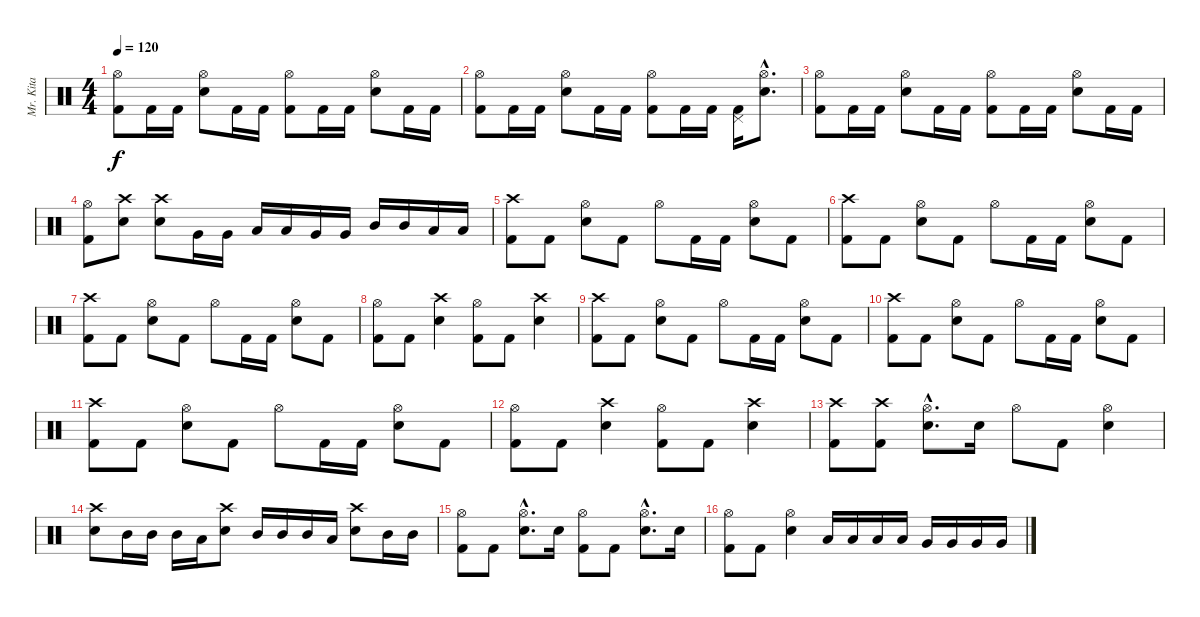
\track ("Mr. Kita" "Mr. Kita") {instrument percussion}
\staff {score}
\articulation defaults
\ts (4 4)
\tempo 120
\clef neutral
\ks c
("Hi-Hat (open)" "Kick (hit) 2").8{dy f} "Kick (hit) 2".16 "Kick (hit) 2".16 ("Hi-Hat (open)" "Snare (hit) 2").8 "Kick (hit) 2".16 "Kick (hit) 2".16 ("Hi-Hat (open)" "Kick (hit) 2").8 "Kick (hit) 2".16 "Kick (hit) 2".16 ("Hi-Hat (open)" "Snare (hit) 2").8 "Kick (hit) 2".16 "Kick (hit) 2".16 |
("Hi-Hat (open)" "Kick (hit) 2").8 "Kick (hit) 2".16 "Kick (hit) 2".16 ("Hi-Hat (open)" "Snare (hit) 2").8 "Kick (hit) 2".16 "Kick (hit) 2".16 ("Hi-Hat (open)" "Kick (hit) 2").8 "Kick (hit) 2".16 "Kick (hit) 2".16 ("Pedal Hi-Hat (hit)" "Kick (hit) 2").16 ("Hi-Hat (open)"{hac} "Snare (hit) 2"{hac}).8{d} |
("Hi-Hat (open)" "Kick (hit) 2").8 "Kick (hit) 2".16 "Kick (hit) 2".16 ("Hi-Hat (open)" "Snare (hit) 2").8 "Kick (hit) 2".16 "Kick (hit) 2".16 ("Hi-Hat (open)" "Kick (hit) 2").8 "Kick (hit) 2".16 "Kick (hit) 2".16 ("Hi-Hat (open)" "Snare (hit) 2").8 "Kick (hit) 2".16 "Kick (hit) 2".16 |
("Hi-Hat (open)" "Kick (hit) 2").8 ("Crash high (hit)" "Snare (hit) 2").8 ("Crash high (hit)" "Snare (hit) 2").8 "Very Low Tom (hit)".16 "Very Low Tom (hit)".16 "Low Tom (hit)".16 "Low Tom (hit)".16 "Very Low Tom (hit)".16 "Very Low Tom (hit)".16 "Mid Tom (hit)".16 "Mid Tom (hit)".16 "Low Tom (hit)".16 "Low Tom (hit)".16 |
("Crash high (hit)" "Kick (hit) 2").8 "Kick (hit) 2".8 ("Hi-Hat (open)" "Snare (hit) 2").8 "Kick (hit) 2".8 "Hi-Hat (open)".8 "Kick (hit) 2".16 "Kick (hit) 2".16 ("Hi-Hat (open)" "Snare (hit) 2").8 "Kick (hit) 2".8 |
("Crash high (hit)" "Kick (hit) 2").8 "Kick (hit) 2".8 ("Hi-Hat (open)" "Snare (hit) 2").8 "Kick (hit) 2".8 "Hi-Hat (open)".8 "Kick (hit) 2".16 "Kick (hit) 2".16 ("Hi-Hat (open)" "Snare (hit) 2").8 "Kick (hit) 2".8 |
("Crash high (hit)" "Kick (hit) 2").8 "Kick (hit) 2".8 ("Hi-Hat (open)" "Snare (hit) 2").8 "Kick (hit) 2".8 "Hi-Hat (open)".8 "Kick (hit) 2".16 "Kick (hit) 2".16 ("Hi-Hat (open)" "Snare (hit) 2").8 "Kick (hit) 2".8 |
("Hi-Hat (open)" "Kick (hit) 2").8 "Kick (hit) 2".8 ("Crash high (hit)" "Snare (hit) 2").4 ("Hi-Hat (open)" "Kick (hit) 2").8 "Kick (hit) 2".8 ("Crash high (hit)" "Snare (hit) 2").4 |
("Crash high (hit)" "Kick (hit) 2").8 "Kick (hit) 2".8 ("Hi-Hat (open)" "Snare (hit) 2").8 "Kick (hit) 2".8 "Hi-Hat (open)".8 "Kick (hit) 2".16 "Kick (hit) 2".16 ("Hi-Hat (open)" "Snare (hit) 2").8 "Kick (hit) 2".8 |
("Crash high (hit)" "Kick (hit) 2").8 "Kick (hit) 2".8 ("Hi-Hat (open)" "Snare (hit) 2").8 "Kick (hit) 2".8 "Hi-Hat (open)".8 "Kick (hit) 2".16 "Kick (hit) 2".16 ("Hi-Hat (open)" "Snare (hit) 2").8 "Kick (hit) 2".8 |
("Crash high (hit)" "Kick (hit) 2").8 "Kick (hit) 2".8 ("Hi-Hat (open)" "Snare (hit) 2").8 "Kick (hit) 2".8 "Hi-Hat (open)".8 "Kick (hit) 2".16 "Kick (hit) 2".16 ("Hi-Hat (open)" "Snare (hit) 2").8 "Kick (hit) 2".8 |
("Hi-Hat (open)" "Kick (hit) 2").8 "Kick (hit) 2".8 ("Crash high (hit)" "Snare (hit) 2").4 ("Hi-Hat (open)" "Kick (hit) 2").8 "Kick (hit) 2".8 ("Crash high (hit)" "Snare (hit) 2").4 |
("Crash high (hit)" "Kick (hit) 2").8 ("Crash high (hit)" "Kick (hit) 2").8 ("Hi-Hat (open)"{hac} "Snare (hit) 2"{hac}).8{d} "Snare (hit) 2".16 "Hi-Hat (open)".8 "Kick (hit) 2".8 ("Hi-Hat (open)" "Snare (hit) 2").4 |
("Crash high (hit)" "Snare (hit) 2").8 "Mid Tom (hit)".16 "Mid Tom (hit)".16 "Mid Tom (hit)".16 "Low Floor Tom (hit)".16 ("Crash high (hit)" "Snare (hit) 2").8 "Mid Tom (hit)".16 "Mid Tom (hit)".16 "Mid Tom (hit)".16 "Low Floor Tom (hit)".16 ("Crash high (hit)" "Snare (hit) 2").8 "Mid Tom (hit)".16 "Mid Tom (hit)".16 |
("Hi-Hat (open)" "Kick (hit) 2").8 "Kick (hit) 2".8 ("Hi-Hat (open)"{hac} "Snare (hit) 2"{hac}).8{d} "Snare (hit) 2".16 ("Hi-Hat (open)" "Kick (hit) 2").8 "Kick (hit) 2".8 ("Hi-Hat (open)"{hac} "Snare (hit) 2"{hac}).8{d} "Snare (hit) 2".16 |
("Hi-Hat (open)" "Kick (hit) 2").8 "Kick (hit) 2".8 ("Hi-Hat (open)" "Snare (hit) 2").4 "Low Tom (hit)".16 "Low Tom (hit)".16 "Low Tom (hit)".16 "Low Tom (hit)".16 "Very Low Tom (hit)".16 "Very Low Tom (hit)".16 "Very Low Tom (hit)".16 "Very Low Tom (hit)".16
